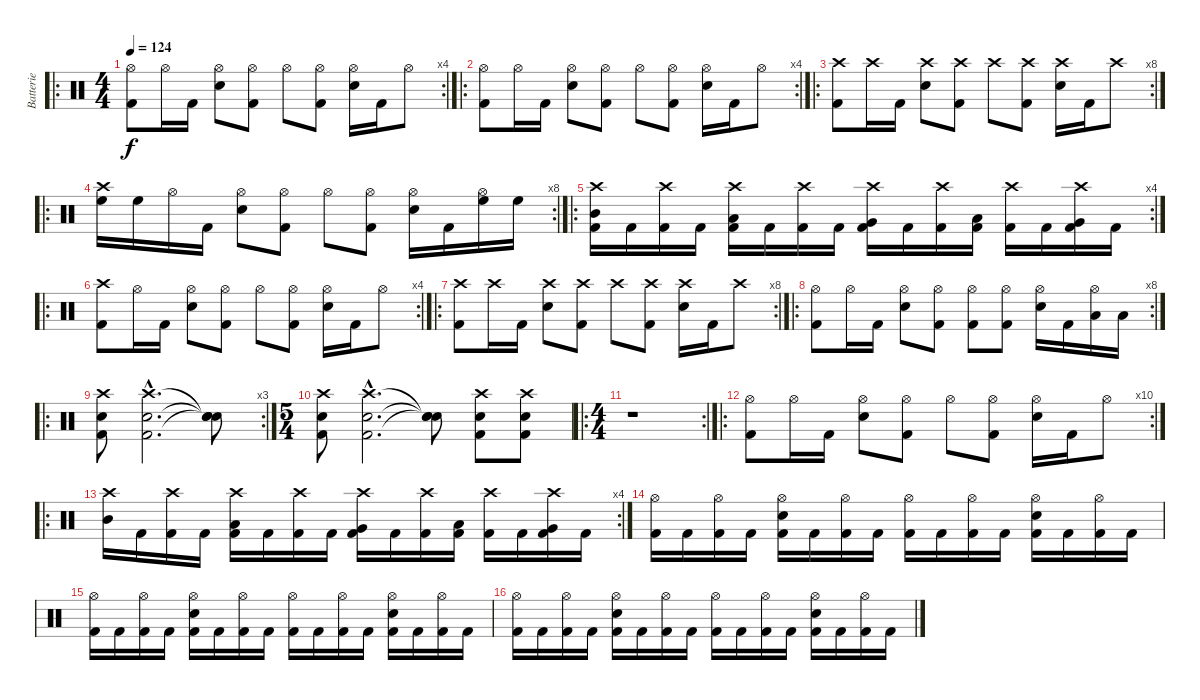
\track ("Batterie" "Batterie") {instrument percussion}
\staff {score}
\articulation defaults
\ro
\rc 4
\ts (4 4)
\tempo 124
\clef neutral
\ks c
("Hi-Hat (open)" "Kick (hit) 2").8{dy f} "Hi-Hat (open)".16 "Kick (hit) 2".16 ("Hi-Hat (open)" "Electric Snare (hit)").8 ("Hi-Hat (open)" "Kick (hit) 2").8 "Hi-Hat (open)".8 ("Hi-Hat (open)" "Kick (hit) 2").8 ("Hi-Hat (open)" "Electric Snare (hit)").16 "Kick (hit) 2".16 "Hi-Hat (open)".8 |
\ro
\rc 4
("Hi-Hat (open)" "Kick (hit) 2").8 "Hi-Hat (open)".16 "Kick (hit) 2".16 ("Hi-Hat (open)" "Electric Snare (hit)").8 ("Hi-Hat (open)" "Kick (hit) 2").8 "Hi-Hat (open)".8 ("Hi-Hat (open)" "Kick (hit) 2").8 ("Hi-Hat (open)" "Electric Snare (hit)").16 "Kick (hit) 2".16 "Hi-Hat (open)".8 |
\ro
\rc 8
("Crash high (hit)" "Kick (hit) 2").8 "Crash high (hit)".16 "Kick (hit) 2".16 ("Crash high (hit)" "Electric Snare (hit)").8 ("Crash high (hit)" "Kick (hit) 2").8 "Crash high (hit)".8 ("Crash high (hit)" "Kick (hit) 2").8 ("Crash high (hit)" "Electric Snare (hit)").16 "Kick (hit) 2".16 "Crash high (hit)".8 |
\ro
\rc 8
("Crash high (hit)" "High Floor Tom (hit)").16 "High Floor Tom (hit)".16 "Hi-Hat (open)".16 "Kick (hit) 2".16 ("Hi-Hat (open)" "Electric Snare (hit)").8 ("Hi-Hat (open)" "Kick (hit) 2").8 "Hi-Hat (open)".8 ("Hi-Hat (open)" "Kick (hit) 2").8 ("Hi-Hat (open)" "Electric Snare (hit)").16 "Kick (hit) 2".16 ("Hi-Hat (open)" "High Floor Tom (hit)").16 "High Floor Tom (hit)".16 |
\ro
\rc 4
("Crash high (hit)" "Mid Tom (hit)" "Kick (hit) 2").16 "Kick (hit) 2".16 ("Crash high (hit)" "Kick (hit) 2").16 "Kick (hit) 2".16 ("Crash high (hit)" "Low Tom (hit)" "Kick (hit) 2").16 "Kick (hit) 2".16 ("Crash high (hit)" "Kick (hit) 2").16 "Kick (hit) 2".16 ("Crash high (hit)" "Very Low Tom (hit)" "Kick (hit) 2").16 "Kick (hit) 2".16 ("Crash high (hit)" "Kick (hit) 2").16 ("Low Floor Tom (hit)" "Kick (hit) 2").16 ("Crash high (hit)" "Kick (hit) 2").16 "Kick (hit) 2".16 ("Crash high (hit)" "Very Low Tom (hit)" "Kick (hit) 2").16 "Kick (hit) 2".16 |
\ro
\rc 4
("Crash high (hit)" "Kick (hit) 2").8 "Hi-Hat (open)".16 "Kick (hit) 2".16 ("Hi-Hat (open)" "Electric Snare (hit)").8 ("Hi-Hat (open)" "Kick (hit) 2").8 "Hi-Hat (open)".8 ("Hi-Hat (open)" "Kick (hit) 2").8 ("Hi-Hat (open)" "Electric Snare (hit)").16 "Kick (hit) 2".16 "Hi-Hat (open)".8 |
\ro
\rc 8
("Crash high (hit)" "Kick (hit) 2").8 "Crash high (hit)".16 "Kick (hit) 2".16 ("Crash high (hit)" "Electric Snare (hit)").8 ("Crash high (hit)" "Kick (hit) 2").8 "Crash high (hit)".8 ("Crash high (hit)" "Kick (hit) 2").8 ("Crash high (hit)" "Electric Snare (hit)").16 "Kick (hit) 2".16 "Crash high (hit)".8 |
\ro
\rc 8
("Hi-Hat (open)" "Kick (hit) 2").8 "Hi-Hat (open)".16 "Kick (hit) 2".16 ("Hi-Hat (open)" "Electric Snare (hit)").8 ("Hi-Hat (open)" "Kick (hit) 2").8 ("Hi-Hat (open)" "Kick (hit) 2").8 ("Hi-Hat (open)" "Kick (hit) 2").8 ("Hi-Hat (open)" "Electric Snare (hit)").16 "Kick (hit) 2".16 ("Hi-Hat (open)" "Low Tom (hit)").16 "Low Tom (hit)".16 |
\ro
\rc 3
("Crash high (hit)" "Electric Snare (hit)" "Kick (hit) 2").8 ("Crash high (hit)"{hac} "Electric Snare (hit)"{hac} "Kick (hit) 2"{hac}).2{d} ("Snare (hit)"{t} "Snare (hit)"{t} "Snare (hit)"{t}).8 |
\ts (5 4)
("Crash high (hit)" "Electric Snare (hit)" "Kick (hit) 2").8 ("Crash high (hit)"{hac} "Electric Snare (hit)"{hac} "Kick (hit) 2"{hac}).2{d} ("Snare (hit)"{t} "Snare (hit)"{t} "Snare (hit)"{t}).8 ("Crash high (hit)" "Electric Snare (hit)" "Kick (hit) 2").8 ("Crash high (hit)" "Electric Snare (hit)" "Kick (hit) 2").8 |
\ro
\rc 2
\ts (4 4)
r.1 |
\ro
\rc 10
("Hi-Hat (open)" "Kick (hit) 2").8 "Hi-Hat (open)".16 "Kick (hit) 2".16 ("Hi-Hat (open)" "Electric Snare (hit)").8 ("Hi-Hat (open)" "Kick (hit) 2").8 "Hi-Hat (open)".8 ("Hi-Hat (open)" "Kick (hit) 2").8 ("Hi-Hat (open)" "Electric Snare (hit)").16 "Kick (hit) 2".16 "Hi-Hat (open)".8 |
\ro
\rc 4
("Crash high (hit)" "Mid Tom (hit)").16 "Kick (hit) 2".16 ("Crash high (hit)" "Kick (hit) 2").16 "Kick (hit) 2".16 ("Crash high (hit)" "Low Tom (hit)" "Kick (hit) 2").16 "Kick (hit) 2".16 ("Crash high (hit)" "Kick (hit) 2").16 "Kick (hit) 2".16 ("Crash high (hit)" "Very Low Tom (hit)" "Kick (hit) 2").16 "Kick (hit) 2".16 ("Crash high (hit)" "Kick (hit) 2").16 ("Low Floor Tom (hit)" "Kick (hit) 2").16 ("Crash high (hit)" "Kick (hit) 2").16 "Kick (hit) 2".16 ("Crash high (hit)" "Very Low Tom (hit)" "Kick (hit) 2").16 "Kick (hit) 2".16 |
("Hi-Hat (open)" "Kick (hit) 2").16 "Kick (hit) 2".16 ("Hi-Hat (open)" "Kick (hit) 2").16 "Kick (hit) 2".16 ("Hi-Hat (open)" "Electric Snare (hit)" "Kick (hit) 2").16 "Kick (hit) 2".16 ("Hi-Hat (open)" "Kick (hit) 2").16 "Kick (hit) 2".16 ("Hi-Hat (open)" "Kick (hit) 2").16 "Kick (hit) 2".16 ("Hi-Hat (open)" "Kick (hit) 2").16 "Kick (hit) 2".16 ("Hi-Hat (open)" "Electric Snare (hit)" "Kick (hit) 2").16 "Kick (hit) 2".16 ("Hi-Hat (open)" "Kick (hit) 2").16 "Kick (hit) 2".16 |
("Hi-Hat (open)" "Kick (hit) 2").16 "Kick (hit) 2".16 ("Hi-Hat (open)" "Kick (hit) 2").16 "Kick (hit) 2".16 ("Hi-Hat (open)" "Electric Snare (hit)" "Kick (hit) 2").16 "Kick (hit) 2".16 ("Hi-Hat (open)" "Kick (hit) 2").16 "Kick (hit) 2".16 ("Hi-Hat (open)" "Kick (hit) 2").16 "Kick (hit) 2".16 ("Hi-Hat (open)" "Kick (hit) 2").16 "Kick (hit) 2".16 ("Hi-Hat (open)" "Electric Snare (hit)" "Kick (hit) 2").16 "Kick (hit) 2".16 ("Hi-Hat (open)" "Kick (hit) 2").16 "Kick (hit) 2".16 |
("Hi-Hat (open)" "Kick (hit) 2").16 "Kick (hit) 2".16 ("Hi-Hat (open)" "Kick (hit) 2").16 "Kick (hit) 2".16 ("Hi-Hat (open)" "Electric Snare (hit)" "Kick (hit) 2").16 "Kick (hit) 2".16 ("Hi-Hat (open)" "Kick (hit) 2").16 "Kick (hit) 2".16 ("Hi-Hat (open)" "Kick (hit) 2").16 "Kick (hit) 2".16 ("Hi-Hat (open)" "Kick (hit) 2").16 "Kick (hit) 2".16 ("Hi-Hat (open)" "Electric Snare (hit)" "Kick (hit) 2").16 "Kick (hit) 2".16 ("Hi-Hat (open)" "Kick (hit) 2").16 "Kick (hit) 2".16
